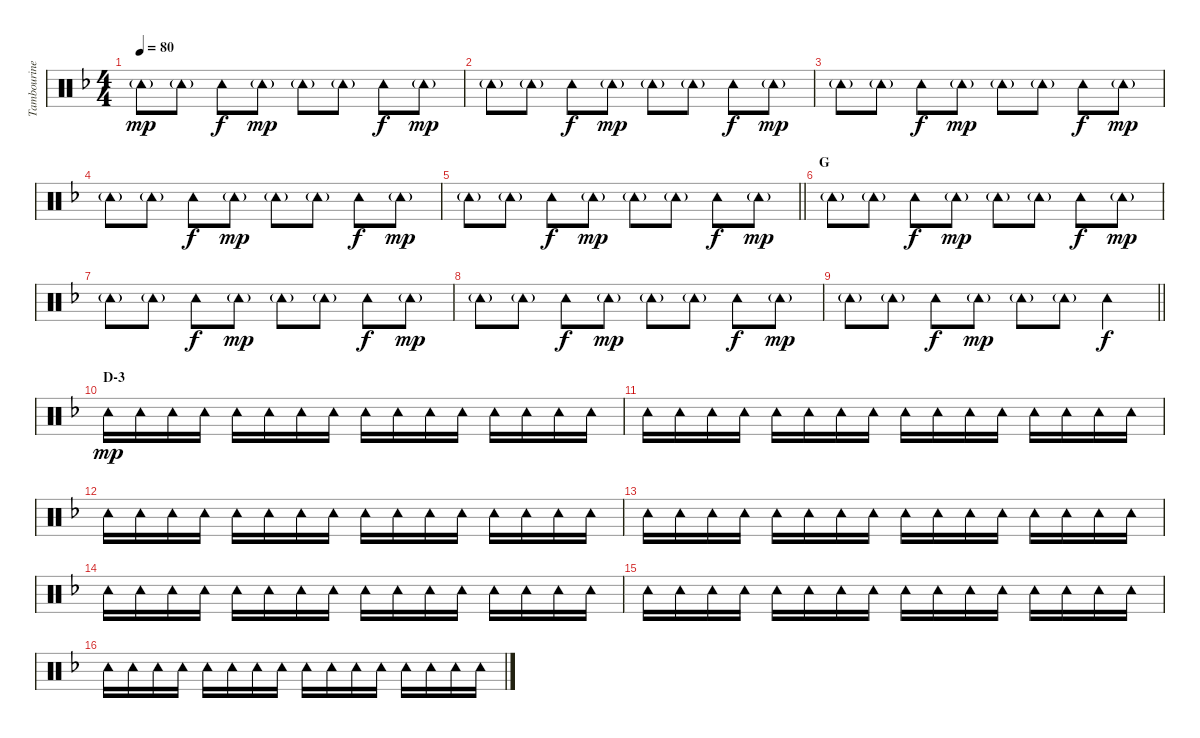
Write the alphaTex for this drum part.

\track ("Tambourine" "Tambourine") {instrument percussion}
\staff {score}
\articulation defaults
\ts (4 4)
\tempo 80
\clef neutral
\ks f "Tambourine (hit)"{g}.8{dy mp} "Tambourine (hit)"{g}.8 "Tambourine (hit)".8{dy f} "Tambourine (hit)"{g}.8{dy mp} "Tambourine (hit)"{g}.8 "Tambourine (hit)"{g}.8 "Tambourine (hit)".8{dy f} "Tambourine (hit)"{g}.8{dy mp}
|
"Tambourine (hit)"{g}.8 "Tambourine (hit)"{g}.8 "Tambourine (hit)".8{dy f} "Tambourine (hit)"{g}.8{dy mp} "Tambourine (hit)"{g}.8 "Tambourine (hit)"{g}.8 "Tambourine (hit)".8{dy f} "Tambourine (hit)"{g}.8{dy mp} |
"Tambourine (hit)"{g}.8 "Tambourine (hit)"{g}.8 "Tambourine (hit)".8{dy f} "Tambourine (hit)"{g}.8{dy mp} "Tambourine (hit)"{g}.8 "Tambourine (hit)"{g}.8 "Tambourine (hit)".8{dy f} "Tambourine (hit)"{g}.8{dy mp} |
"Tambourine (hit)"{g}.8 "Tambourine (hit)"{g}.8 "Tambourine (hit)".8{dy f} "Tambourine (hit)"{g}.8{dy mp} "Tambourine (hit)"{g}.8 "Tambourine (hit)"{g}.8 "Tambourine (hit)".8{dy f} "Tambourine (hit)"{g}.8{dy mp} |
\barLineRight lightlight "Tambourine (hit)"{g}.8 "Tambourine (hit)"{g}.8 "Tambourine (hit)".8{dy f} "Tambourine (hit)"{g}.8{dy mp} "Tambourine (hit)"{g}.8 "Tambourine (hit)"{g}.8 "Tambourine (hit)".8{dy f} "Tambourine (hit)"{g}.8{dy mp}
|
\section ("" "G")
"Tambourine (hit)"{g}.8 "Tambourine (hit)"{g}.8 "Tambourine (hit)".8{dy f} "Tambourine (hit)"{g}.8{dy mp} "Tambourine (hit)"{g}.8 "Tambourine (hit)"{g}.8 "Tambourine (hit)".8{dy f} "Tambourine (hit)"{g}.8{dy mp} |
"Tambourine (hit)"{g}.8 "Tambourine (hit)"{g}.8 "Tambourine (hit)".8{dy f} "Tambourine (hit)"{g}.8{dy mp} "Tambourine (hit)"{g}.8 "Tambourine (hit)"{g}.8 "Tambourine (hit)".8{dy f} "Tambourine (hit)"{g}.8{dy mp} |
"Tambourine (hit)"{g}.8 "Tambourine (hit)"{g}.8 "Tambourine (hit)".8{dy f} "Tambourine (hit)"{g}.8{dy mp} "Tambourine (hit)"{g}.8 "Tambourine (hit)"{g}.8 "Tambourine (hit)".8{dy f} "Tambourine (hit)"{g}.8{dy mp} |
\barLineRight lightlight "Tambourine (hit)"{g}.8 "Tambourine (hit)"{g}.8 "Tambourine (hit)".8{dy f} "Tambourine (hit)"{g}.8{dy mp} "Tambourine (hit)"{g}.8 "Tambourine (hit)"{g}.8 "Tambourine (hit)".4{dy f}
|
\section ("" "D-3")
"Tambourine (hit)".16{dy mp} "Tambourine (hit)".16 "Tambourine (hit)".16 "Tambourine (hit)".16 "Tambourine (hit)".16 "Tambourine (hit)".16 "Tambourine (hit)".16 "Tambourine (hit)".16 "Tambourine (hit)".16 "Tambourine (hit)".16 "Tambourine (hit)".16 "Tambourine (hit)".16 "Tambourine (hit)".16 "Tambourine (hit)".16 "Tambourine (hit)".16 "Tambourine (hit)".16 |
"Tambourine (hit)".16 "Tambourine (hit)".16 "Tambourine (hit)".16 "Tambourine (hit)".16 "Tambourine (hit)".16 "Tambourine (hit)".16 "Tambourine (hit)".16 "Tambourine (hit)".16 "Tambourine (hit)".16 "Tambourine (hit)".16 "Tambourine (hit)".16 "Tambourine (hit)".16 "Tambourine (hit)".16 "Tambourine (hit)".16 "Tambourine (hit)".16 "Tambourine (hit)".16 |
"Tambourine (hit)".16 "Tambourine (hit)".16 "Tambourine (hit)".16 "Tambourine (hit)".16 "Tambourine (hit)".16 "Tambourine (hit)".16 "Tambourine (hit)".16 "Tambourine (hit)".16 "Tambourine (hit)".16 "Tambourine (hit)".16 "Tambourine (hit)".16 "Tambourine (hit)".16 "Tambourine (hit)".16 "Tambourine (hit)".16 "Tambourine (hit)".16 "Tambourine (hit)".16 |
"Tambourine (hit)".16 "Tambourine (hit)".16 "Tambourine (hit)".16 "Tambourine (hit)".16 "Tambourine (hit)".16 "Tambourine (hit)".16 "Tambourine (hit)".16 "Tambourine (hit)".16 "Tambourine (hit)".16 "Tambourine (hit)".16 "Tambourine (hit)".16 "Tambourine (hit)".16 "Tambourine (hit)".16 "Tambourine (hit)".16 "Tambourine (hit)".16 "Tambourine (hit)".16 |
"Tambourine (hit)".16 "Tambourine (hit)".16 "Tambourine (hit)".16 "Tambourine (hit)".16 "Tambourine (hit)".16 "Tambourine (hit)".16 "Tambourine (hit)".16 "Tambourine (hit)".16 "Tambourine (hit)".16 "Tambourine (hit)".16 "Tambourine (hit)".16 "Tambourine (hit)".16 "Tambourine (hit)".16 "Tambourine (hit)".16 "Tambourine (hit)".16 "Tambourine (hit)".16 |
"Tambourine (hit)".16 "Tambourine (hit)".16 "Tambourine (hit)".16 "Tambourine (hit)".16 "Tambourine (hit)".16 "Tambourine (hit)".16 "Tambourine (hit)".16 "Tambourine (hit)".16 "Tambourine (hit)".16 "Tambourine (hit)".16 "Tambourine (hit)".16 "Tambourine (hit)".16 "Tambourine (hit)".16 "Tambourine (hit)".16 "Tambourine (hit)".16 "Tambourine (hit)".16 |
"Tambourine (hit)".16 "Tambourine (hit)".16 "Tambourine (hit)".16 "Tambourine (hit)".16 "Tambourine (hit)".16 "Tambourine (hit)".16 "Tambourine (hit)".16 "Tambourine (hit)".16 "Tambourine (hit)".16 "Tambourine (hit)".16 "Tambourine (hit)".16 "Tambourine (hit)".16 "Tambourine (hit)".16 "Tambourine (hit)".16 "Tambourine (hit)".16 "Tambourine (hit)".16
